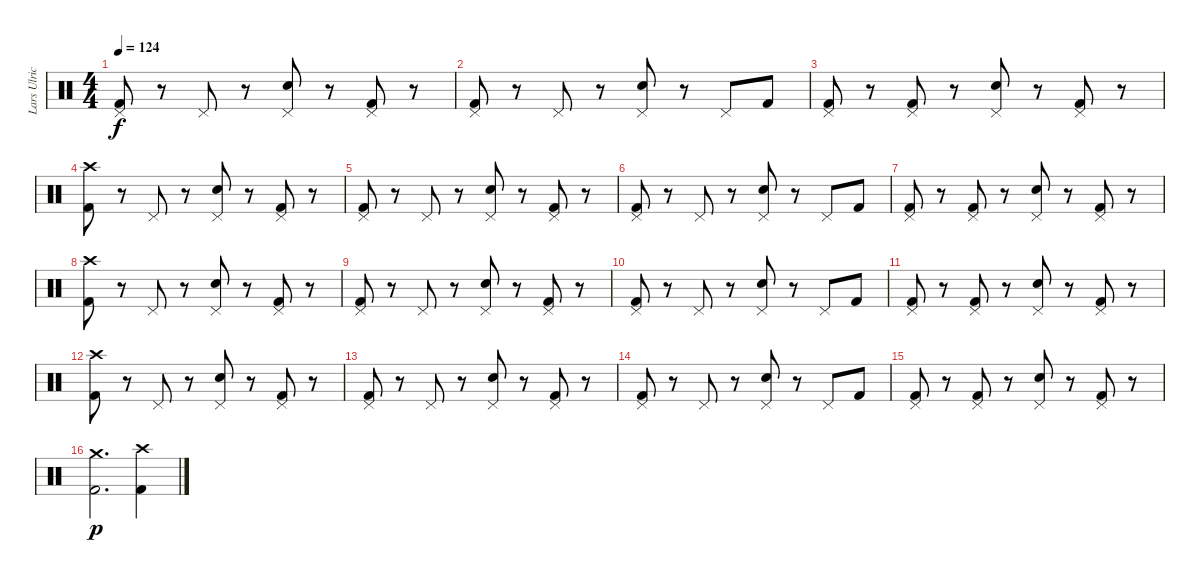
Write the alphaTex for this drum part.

\track ("Lars Ulrich" "Lars Ulric") {instrument percussion}
\staff {score}
\articulation defaults
\ts (4 4)
\tempo 124
\clef neutral
\ks c
("Pedal Hi-Hat (hit)" "Kick (hit) 2").8{dy f} r.8 "Pedal Hi-Hat (hit)".8 r.8 ("Pedal Hi-Hat (hit)" "Electric Snare (hit)").8 r.8 ("Pedal Hi-Hat (hit)" "Kick (hit) 2").8 r.8 |
("Pedal Hi-Hat (hit)" "Kick (hit) 2").8 r.8 "Pedal Hi-Hat (hit)".8 r.8 ("Pedal Hi-Hat (hit)" "Electric Snare (hit)").8 r.8 "Pedal Hi-Hat (hit)".8 "Kick (hit) 2".8 |
("Pedal Hi-Hat (hit)" "Kick (hit) 2").8 r.8 ("Pedal Hi-Hat (hit)" "Kick (hit) 2").8 r.8 ("Pedal Hi-Hat (hit)" "Electric Snare (hit)").8 r.8 ("Pedal Hi-Hat (hit)" "Kick (hit) 2").8 r.8 |
("Crash high (hit)" "Kick (hit) 2").8 r.8 "Pedal Hi-Hat (hit)".8 r.8 ("Pedal Hi-Hat (hit)" "Electric Snare (hit)").8 r.8 ("Pedal Hi-Hat (hit)" "Kick (hit) 2").8 r.8 |
("Pedal Hi-Hat (hit)" "Kick (hit) 2").8 r.8 "Pedal Hi-Hat (hit)".8 r.8 ("Pedal Hi-Hat (hit)" "Electric Snare (hit)").8 r.8 ("Pedal Hi-Hat (hit)" "Kick (hit) 2").8 r.8 |
("Pedal Hi-Hat (hit)" "Kick (hit) 2").8 r.8 "Pedal Hi-Hat (hit)".8 r.8 ("Pedal Hi-Hat (hit)" "Electric Snare (hit)").8 r.8 "Pedal Hi-Hat (hit)".8 "Kick (hit) 2".8 |
("Pedal Hi-Hat (hit)" "Kick (hit) 2").8 r.8 ("Pedal Hi-Hat (hit)" "Kick (hit) 2").8 r.8 ("Pedal Hi-Hat (hit)" "Electric Snare (hit)").8 r.8 ("Pedal Hi-Hat (hit)" "Kick (hit) 2").8 r.8 |
("Crash high (hit)" "Kick (hit) 2").8 r.8 "Pedal Hi-Hat (hit)".8 r.8 ("Pedal Hi-Hat (hit)" "Electric Snare (hit)").8 r.8 ("Pedal Hi-Hat (hit)" "Kick (hit) 2").8 r.8 |
("Pedal Hi-Hat (hit)" "Kick (hit) 2").8 r.8 "Pedal Hi-Hat (hit)".8 r.8 ("Pedal Hi-Hat (hit)" "Electric Snare (hit)").8 r.8 ("Pedal Hi-Hat (hit)" "Kick (hit) 2").8 r.8 |
("Pedal Hi-Hat (hit)" "Kick (hit) 2").8 r.8 "Pedal Hi-Hat (hit)".8 r.8 ("Pedal Hi-Hat (hit)" "Electric Snare (hit)").8 r.8 "Pedal Hi-Hat (hit)".8 "Kick (hit) 2".8 |
("Pedal Hi-Hat (hit)" "Kick (hit) 2").8 r.8 ("Pedal Hi-Hat (hit)" "Kick (hit) 2").8 r.8 ("Pedal Hi-Hat (hit)" "Electric Snare (hit)").8 r.8 ("Pedal Hi-Hat (hit)" "Kick (hit) 2").8 r.8 |
("Crash high (hit)" "Kick (hit) 2").8 r.8 "Pedal Hi-Hat (hit)".8 r.8 ("Pedal Hi-Hat (hit)" "Electric Snare (hit)").8 r.8 ("Pedal Hi-Hat (hit)" "Kick (hit) 2").8 r.8 |
("Pedal Hi-Hat (hit)" "Kick (hit) 2").8 r.8 "Pedal Hi-Hat (hit)".8 r.8 ("Pedal Hi-Hat (hit)" "Electric Snare (hit)").8 r.8 ("Pedal Hi-Hat (hit)" "Kick (hit) 2").8 r.8 |
("Pedal Hi-Hat (hit)" "Kick (hit) 2").8 r.8 "Pedal Hi-Hat (hit)".8 r.8 ("Pedal Hi-Hat (hit)" "Electric Snare (hit)").8 r.8 "Pedal Hi-Hat (hit)".8 "Kick (hit) 2".8 |
("Pedal Hi-Hat (hit)" "Kick (hit) 2").8 r.8 ("Pedal Hi-Hat (hit)" "Kick (hit) 2").8 r.8 ("Pedal Hi-Hat (hit)" "Electric Snare (hit)").8 r.8 ("Pedal Hi-Hat (hit)" "Kick (hit) 2").8 r.8 |
("Crash medium (hit)" "Kick (hit) 2").2{d dy p} ("Crash high (hit)" "Kick (hit) 2").4
